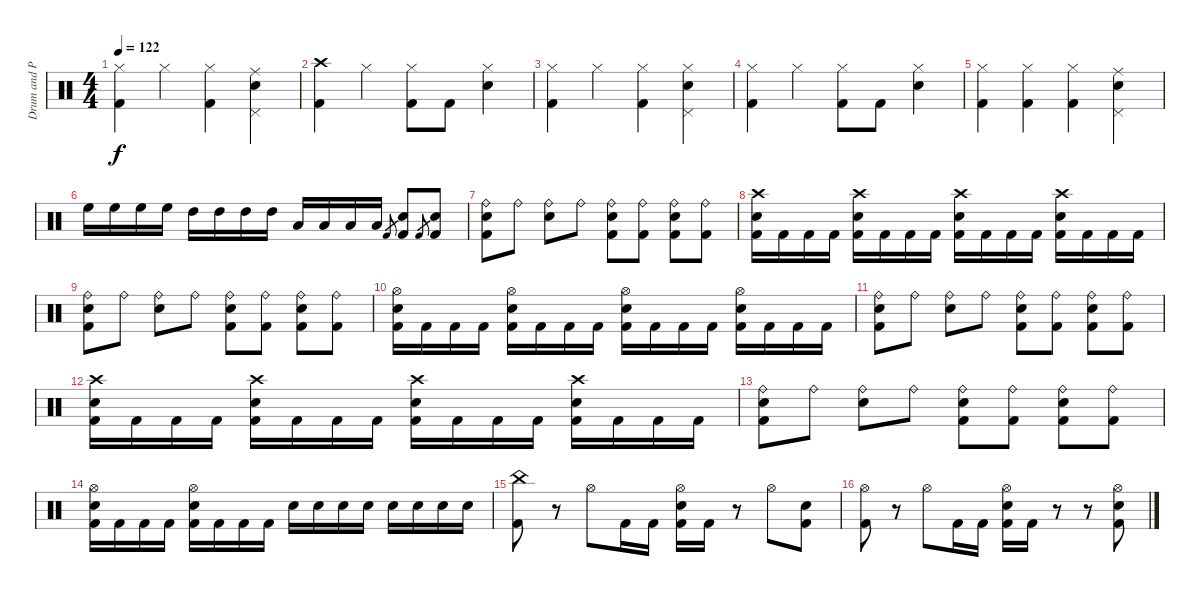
\track ("Drum and Persscusian" "Drum and P") {instrument percussion}
\staff {score}
\articulation defaults
\ts (4 4)
\tempo 122
\clef neutral
\ks c
("Hi-Hat (closed)" "Kick (hit) 2").4{dy f} "Hi-Hat (closed)".4 ("Hi-Hat (closed)" "Kick (hit) 2").4 ("Ride (middle)" "Pedal Hi-Hat (hit)" "Snare (hit) 2").4 |
("Crash high (hit)" "Kick (hit) 2").4 "Hi-Hat (closed)".4 ("Hi-Hat (closed)" "Kick (hit) 2").8 "Kick (hit) 2".8 ("Hi-Hat (closed)" "Snare (hit) 2").4 |
("Hi-Hat (closed)" "Kick (hit) 2").4 "Hi-Hat (closed)".4 ("Hi-Hat (closed)" "Kick (hit) 2").4 ("Hi-Hat (closed)" "Pedal Hi-Hat (hit)" "Snare (hit) 2").4 |
("Hi-Hat (closed)" "Kick (hit) 2").4 "Hi-Hat (closed)".4 ("Hi-Hat (closed)" "Kick (hit) 2").8 "Kick (hit) 2".8 ("Hi-Hat (closed)" "Snare (hit) 2").4 |
("Hi-Hat (closed)" "Kick (hit) 2").4 ("Hi-Hat (closed)" "Kick (hit) 2").4 ("Hi-Hat (closed)" "Kick (hit) 2").4 ("Ride (middle)" "Pedal Hi-Hat (hit)" "Snare (hit) 2").4 |
"High Floor Tom (hit)".16 "High Floor Tom (hit)".16 "High Floor Tom (hit)".16 "High Floor Tom (hit)".16 "High Tom (hit)".16 "High Tom (hit)".16 "High Tom (hit)".16 "High Tom (hit)".16 "Low Tom (hit)".16 "Low Tom (hit)".16 "Low Tom (hit)".16 "Low Tom (hit)".16 "Kick (hit) 2".8{gr} ("Snare (hit) 2" "Kick (hit) 2").8 "Kick (hit) 2".8{gr} ("Snare (hit) 2" "Kick (hit) 2").8 |
("Ride (bell)" "Snare (hit) 2" "Kick (hit) 2").8 "Ride (bell)".8 ("Ride (bell)" "Snare (hit) 2").8 "Ride (bell)".8 ("Ride (bell)" "Snare (hit) 2" "Kick (hit) 2").8 ("Ride (bell)" "Kick (hit) 2").8 ("Ride (bell)" "Snare (hit) 2" "Kick (hit) 2").8 ("Ride (bell)" "Kick (hit) 2").8 |
("Crash high (hit)" "Snare (hit) 2" "Kick (hit) 2").16 "Kick (hit) 2".16 "Kick (hit) 2".16 "Kick (hit) 2".16 ("Crash high (hit)" "Snare (hit) 2" "Kick (hit) 2").16 "Kick (hit) 2".16 "Kick (hit) 2".16 "Kick (hit) 2".16 ("Crash high (hit)" "Snare (hit) 2" "Kick (hit) 2").16 "Kick (hit) 2".16 "Kick (hit) 2".16 "Kick (hit) 2".16 ("Crash high (hit)" "Snare (hit) 2" "Kick (hit) 2").16 "Kick (hit) 2".16 "Kick (hit) 2".16 "Kick (hit) 2".16 |
("Ride (bell)" "Snare (hit) 2" "Kick (hit) 2").8 "Ride (bell)".8 ("Ride (bell)" "Snare (hit) 2").8 "Ride (bell)".8 ("Ride (bell)" "Snare (hit) 2" "Kick (hit) 2").8 ("Ride (bell)" "Kick (hit) 2").8 ("Ride (bell)" "Snare (hit) 2" "Kick (hit) 2").8 ("Ride (bell)" "Kick (hit) 2").8 |
("Hi-Hat (open)" "Snare (hit) 2" "Kick (hit) 2").16 "Kick (hit) 2".16 "Kick (hit) 2".16 "Kick (hit) 2".16 ("Hi-Hat (open)" "Snare (hit) 2" "Kick (hit) 2").16 "Kick (hit) 2".16 "Kick (hit) 2".16 "Kick (hit) 2".16 ("Hi-Hat (open)" "Snare (hit) 2" "Kick (hit) 2").16 "Kick (hit) 2".16 "Kick (hit) 2".16 "Kick (hit) 2".16 ("Hi-Hat (open)" "Snare (hit) 2" "Kick (hit) 2").16 "Kick (hit) 2".16 "Kick (hit) 2".16 "Kick (hit) 2".16 |
("Ride (bell)" "Snare (hit) 2" "Kick (hit) 2").8 "Ride (bell)".8 ("Ride (bell)" "Snare (hit) 2").8 "Ride (bell)".8 ("Ride (bell)" "Snare (hit) 2" "Kick (hit) 2").8 ("Ride (bell)" "Kick (hit) 2").8 ("Ride (bell)" "Snare (hit) 2" "Kick (hit) 2").8 ("Ride (bell)" "Kick (hit) 2").8 |
("Crash high (hit)" "Snare (hit) 2" "Kick (hit) 2").16 "Kick (hit) 2".16 "Kick (hit) 2".16 "Kick (hit) 2".16 ("Crash high (hit)" "Snare (hit) 2" "Kick (hit) 2").16 "Kick (hit) 2".16 "Kick (hit) 2".16 "Kick (hit) 2".16 ("Crash high (hit)" "Snare (hit) 2" "Kick (hit) 2").16 "Kick (hit) 2".16 "Kick (hit) 2".16 "Kick (hit) 2".16 ("Crash high (hit)" "Snare (hit) 2" "Kick (hit) 2").16 "Kick (hit) 2".16 "Kick (hit) 2".16 "Kick (hit) 2".16 |
("Ride (bell)" "Snare (hit) 2" "Kick (hit) 2").8 "Ride (bell)".8 ("Ride (bell)" "Snare (hit) 2").8 "Ride (bell)".8 ("Ride (bell)" "Snare (hit) 2" "Kick (hit) 2").8 ("Ride (bell)" "Kick (hit) 2").8 ("Ride (bell)" "Snare (hit) 2" "Kick (hit) 2").8 ("Ride (bell)" "Kick (hit) 2").8 |
("Hi-Hat (open)" "Snare (hit) 2" "Kick (hit) 2").16 "Kick (hit) 2".16 "Kick (hit) 2".16 "Kick (hit) 2".16 ("Hi-Hat (open)" "Snare (hit) 2" "Kick (hit) 2").16 "Kick (hit) 2".16 "Kick (hit) 2".16 "Kick (hit) 2".16 "Snare (hit) 2".16 "Snare (hit) 2".16 "Snare (hit) 2".16 "Snare (hit) 2".16 "Snare (hit) 2".16 "Snare (hit) 2".16 "Snare (hit) 2".16 "Snare (hit) 2".16 |
("China (hit)" "Kick (hit) 2").8 r.8 "Hi-Hat (open)".8 "Kick (hit) 2".16 "Kick (hit) 2".16 ("Hi-Hat (open)" "Snare (hit) 2" "Kick (hit) 2").16 "Kick (hit) 2".16 r.8 "Hi-Hat (open)".8 ("Snare (hit) 2" "Kick (hit) 2").8 |
("Hi-Hat (open)" "Kick (hit) 2").8 r.8 "Hi-Hat (open)".8 "Kick (hit) 2".16 "Kick (hit) 2".16 ("Hi-Hat (open)" "Snare (hit) 2" "Kick (hit) 2").16 "Kick (hit) 2".16 r.8 r.8 ("Hi-Hat (open)" "Snare (hit) 2" "Kick (hit) 2").8
